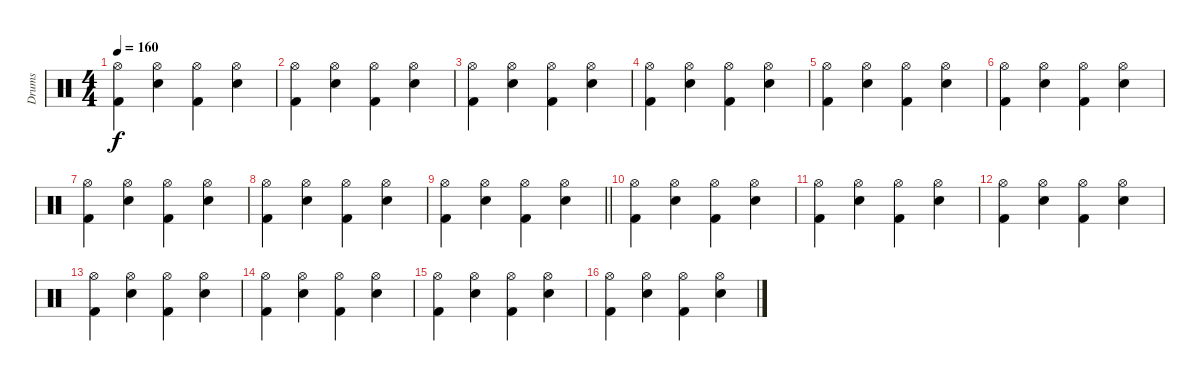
\track ("Drums" "Drums") {instrument percussion}
\staff {score}
\articulation defaults
\ts (4 4)
\tempo 160
\clef neutral
\ks c
("Hi-Hat (open)" "Kick (hit) 2").4{dy f} ("Hi-Hat (open)" "Electric Snare (hit)").4 ("Hi-Hat (open)" "Kick (hit) 2").4 ("Hi-Hat (open)" "Electric Snare (hit)").4 |
("Hi-Hat (open)" "Kick (hit) 2").4 ("Hi-Hat (open)" "Electric Snare (hit)").4 ("Hi-Hat (open)" "Kick (hit) 2").4 ("Hi-Hat (open)" "Electric Snare (hit)").4 |
("Hi-Hat (open)" "Kick (hit) 2").4 ("Hi-Hat (open)" "Electric Snare (hit)").4 ("Hi-Hat (open)" "Kick (hit) 2").4 ("Hi-Hat (open)" "Electric Snare (hit)").4 |
("Hi-Hat (open)" "Kick (hit) 2").4 ("Hi-Hat (open)" "Electric Snare (hit)").4 ("Hi-Hat (open)" "Kick (hit) 2").4 ("Hi-Hat (open)" "Electric Snare (hit)").4 |
("Hi-Hat (open)" "Kick (hit) 2").4 ("Hi-Hat (open)" "Electric Snare (hit)").4 ("Hi-Hat (open)" "Kick (hit) 2").4 ("Hi-Hat (open)" "Electric Snare (hit)").4 |
("Hi-Hat (open)" "Kick (hit) 2").4 ("Hi-Hat (open)" "Electric Snare (hit)").4 ("Hi-Hat (open)" "Kick (hit) 2").4 ("Hi-Hat (open)" "Electric Snare (hit)").4 |
("Hi-Hat (open)" "Kick (hit) 2").4 ("Hi-Hat (open)" "Electric Snare (hit)").4 ("Hi-Hat (open)" "Kick (hit) 2").4 ("Hi-Hat (open)" "Electric Snare (hit)").4 |
("Hi-Hat (open)" "Kick (hit) 2").4 ("Hi-Hat (open)" "Electric Snare (hit)").4 ("Hi-Hat (open)" "Kick (hit) 2").4 ("Hi-Hat (open)" "Electric Snare (hit)").4 |
\barLineRight lightlight
("Hi-Hat (open)" "Kick (hit) 2").4 ("Hi-Hat (open)" "Electric Snare (hit)").4 ("Hi-Hat (open)" "Kick (hit) 2").4 ("Hi-Hat (open)" "Electric Snare (hit)").4 |
("Hi-Hat (open)" "Kick (hit) 2").4 ("Hi-Hat (open)" "Electric Snare (hit)").4 ("Hi-Hat (open)" "Kick (hit) 2").4 ("Hi-Hat (open)" "Electric Snare (hit)").4 |
("Hi-Hat (open)" "Kick (hit) 2").4 ("Hi-Hat (open)" "Electric Snare (hit)").4 ("Hi-Hat (open)" "Kick (hit) 2").4 ("Hi-Hat (open)" "Electric Snare (hit)").4 |
("Hi-Hat (open)" "Kick (hit) 2").4 ("Hi-Hat (open)" "Electric Snare (hit)").4 ("Hi-Hat (open)" "Kick (hit) 2").4 ("Hi-Hat (open)" "Electric Snare (hit)").4 |
("Hi-Hat (open)" "Kick (hit) 2").4 ("Hi-Hat (open)" "Electric Snare (hit)").4 ("Hi-Hat (open)" "Kick (hit) 2").4 ("Hi-Hat (open)" "Electric Snare (hit)").4 |
("Hi-Hat (open)" "Kick (hit) 2").4 ("Hi-Hat (open)" "Electric Snare (hit)").4 ("Hi-Hat (open)" "Kick (hit) 2").4 ("Hi-Hat (open)" "Electric Snare (hit)").4 |
("Hi-Hat (open)" "Kick (hit) 2").4 ("Hi-Hat (open)" "Electric Snare (hit)").4 ("Hi-Hat (open)" "Kick (hit) 2").4 ("Hi-Hat (open)" "Electric Snare (hit)").4 |
("Hi-Hat (open)" "Kick (hit) 2").4 ("Hi-Hat (open)" "Electric Snare (hit)").4 ("Hi-Hat (open)" "Kick (hit) 2").4 ("Hi-Hat (open)" "Electric Snare (hit)").4
